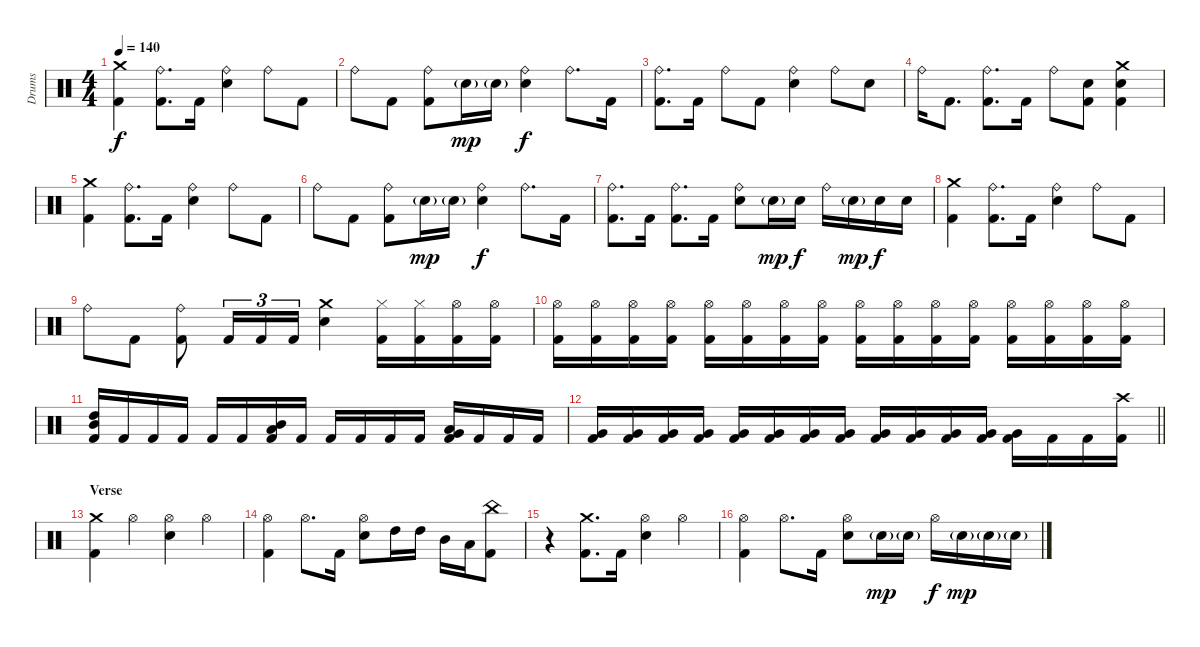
\track ("Drums" "Drums") {instrument percussion}
\staff {score}
\articulation defaults
\ts (4 4)
\tempo 140
\clef neutral
\ks c
("Crash medium (hit)" "Kick (hit) 2").4{dy f} ("Ride (bell)" "Kick (hit) 2").8{d} "Kick (hit) 2".16 ("Ride (bell)" "Electric Snare (hit)").4 "Ride (bell)".8 "Kick (hit) 2".8 |
"Ride (bell)".8 "Kick (hit) 2".8 ("Ride (bell)" "Kick (hit) 2").8 "Electric Snare (hit)"{g}.16{dy mp} "Electric Snare (hit)"{g}.16 ("Ride (bell)" "Electric Snare (hit)").4{dy f} "Ride (bell)".8{d} "Kick (hit) 2".16 |
("Ride (bell)" "Kick (hit) 2").8{d} "Kick (hit) 2".16 "Ride (bell)".8 "Kick (hit) 2".8 ("Ride (bell)" "Electric Snare (hit)").4 "Ride (bell)".8 "Electric Snare (hit)".8 |
"Ride (bell)".16 "Kick (hit) 2".8{d} ("Ride (bell)" "Kick (hit) 2").8{d} "Kick (hit) 2".16 "Ride (bell)".8 ("Electric Snare (hit)" "Kick (hit) 2").8 ("Crash medium (hit)" "Electric Snare (hit)" "Kick (hit) 2").4 |
("Crash medium (hit)" "Kick (hit) 2").4 ("Ride (bell)" "Kick (hit) 2").8{d} "Kick (hit) 2".16 ("Ride (bell)" "Electric Snare (hit)").4 "Ride (bell)".8 "Kick (hit) 2".8 |
"Ride (bell)".8 "Kick (hit) 2".8 ("Ride (bell)" "Kick (hit) 2").8 "Electric Snare (hit)"{g}.16{dy mp} "Electric Snare (hit)"{g}.16 ("Ride (bell)" "Electric Snare (hit)").4{dy f} "Ride (bell)".8{d} "Kick (hit) 2".16 |
("Ride (bell)" "Kick (hit) 2").8{d} "Kick (hit) 2".16 ("Ride (bell)" "Kick (hit) 2").8{d} "Kick (hit) 2".16 ("Ride (bell)" "Electric Snare (hit)").8 "Electric Snare (hit)"{g}.16{dy mp} "Electric Snare (hit)".16{dy f} "Ride (bell)".16 "Electric Snare (hit)"{g}.16{dy mp} "Electric Snare (hit)".16{dy f} "Electric Snare (hit)".16 |
("Crash medium (hit)" "Kick (hit) 2").4 ("Ride (bell)" "Kick (hit) 2").8{d} "Kick (hit) 2".16 ("Ride (bell)" "Electric Snare (hit)").4 "Ride (bell)".8 "Kick (hit) 2".8 |
"Ride (bell)".8 "Kick (hit) 2".8 ("Ride (bell)" "Kick (hit) 2").8 "Kick (hit) 2".16{tu (3 2)} "Kick (hit) 2".16{tu (3 2)} "Kick (hit) 2".16{tu (3 2)} ("Crash medium (hit)" "Electric Snare (hit)").4 ("Hi-Hat (closed)" "Kick (hit) 2").16 ("Hi-Hat (closed)" "Kick (hit) 2").16 ("Hi-Hat (open)" "Kick (hit) 2").16 ("Hi-Hat (open)" "Kick (hit) 2").16 |
("Hi-Hat (open)" "Kick (hit) 2").16 ("Hi-Hat (open)" "Kick (hit) 2").16 ("Hi-Hat (open)" "Kick (hit) 2").16 ("Hi-Hat (open)" "Kick (hit) 2").16 ("Hi-Hat (open)" "Kick (hit) 2").16 ("Hi-Hat (open)" "Kick (hit) 2").16 ("Hi-Hat (open)" "Kick (hit) 2").16 ("Hi-Hat (open)" "Kick (hit) 2").16 ("Hi-Hat (open)" "Kick (hit) 2").16 ("Hi-Hat (open)" "Kick (hit) 2").16 ("Hi-Hat (open)" "Kick (hit) 2").16 ("Hi-Hat (open)" "Kick (hit) 2").16 ("Hi-Hat (open)" "Kick (hit) 2").16 ("Hi-Hat (open)" "Kick (hit) 2").16 ("Hi-Hat (open)" "Kick (hit) 2").16 ("Hi-Hat (open)" "Kick (hit) 2").16 |
("High Tom (hit)" "Mid Tom (hit)" "Kick (hit) 2").16 "Kick (hit) 2".16 "Kick (hit) 2".16 "Kick (hit) 2".16 "Kick (hit) 2".16 "Kick (hit) 2".16 ("Mid Tom (hit)" "Low Tom (hit)" "Kick (hit) 2").16 "Kick (hit) 2".16 "Kick (hit) 2".16 "Kick (hit) 2".16 "Kick (hit) 2".16 "Kick (hit) 2".16 ("Low Tom (hit)" "Very Low Tom (hit)" "Kick (hit) 2").16 "Kick (hit) 2".16 "Kick (hit) 2".16 "Kick (hit) 2".16 |
\barLineRight lightlight
("Very Low Tom (hit)" "Kick (hit) 2").16 ("Very Low Tom (hit)" "Kick (hit) 2").16 ("Very Low Tom (hit)" "Kick (hit) 2").16 ("Very Low Tom (hit)" "Kick (hit) 2").16 ("Very Low Tom (hit)" "Kick (hit) 2").16 ("Very Low Tom (hit)" "Kick (hit) 2").16 ("Very Low Tom (hit)" "Kick (hit) 2").16 ("Very Low Tom (hit)" "Kick (hit) 2").16 ("Very Low Tom (hit)" "Kick (hit) 2").16 ("Very Low Tom (hit)" "Kick (hit) 2").16 ("Very Low Tom (hit)" "Kick (hit) 2").16 ("Very Low Tom (hit)" "Kick (hit) 2").16 ("Very Low Tom (hit)" "Kick (hit) 2").16 "Kick (hit) 2".16 "Kick (hit) 2".16 ("Crash high (hit)" "Kick (hit) 2").16 |
\section ("" "Verse")
("Crash medium (hit)" "Kick (hit) 2").4 "Hi-Hat (open)".4 ("Hi-Hat (open)" "Electric Snare (hit)").4 "Hi-Hat (open)".4 |
("Hi-Hat (open)" "Kick (hit) 2").4 "Hi-Hat (open)".8{d} "Kick (hit) 2".16 ("Hi-Hat (open)" "Electric Snare (hit)").8 "High Tom (hit)".16 "High Tom (hit)".16 "Mid Tom (hit)".16 "Low Tom (hit)".16 ("China (hit)" "Kick (hit) 2").8 |
r.4 ("Crash medium (hit)" "Kick (hit) 2").8{d} "Kick (hit) 2".16 ("Hi-Hat (open)" "Electric Snare (hit)").4 "Hi-Hat (open)".4 |
("Hi-Hat (open)" "Kick (hit) 2").4 "Hi-Hat (open)".8{d} "Kick (hit) 2".16 ("Hi-Hat (open)" "Electric Snare (hit)").8 "Electric Snare (hit)"{g}.16{dy mp} "Electric Snare (hit)"{g}.16 "Hi-Hat (open)".16{dy f} "Electric Snare (hit)"{g}.16{dy mp} "Electric Snare (hit)"{g}.16 "Electric Snare (hit)"{g}.16
